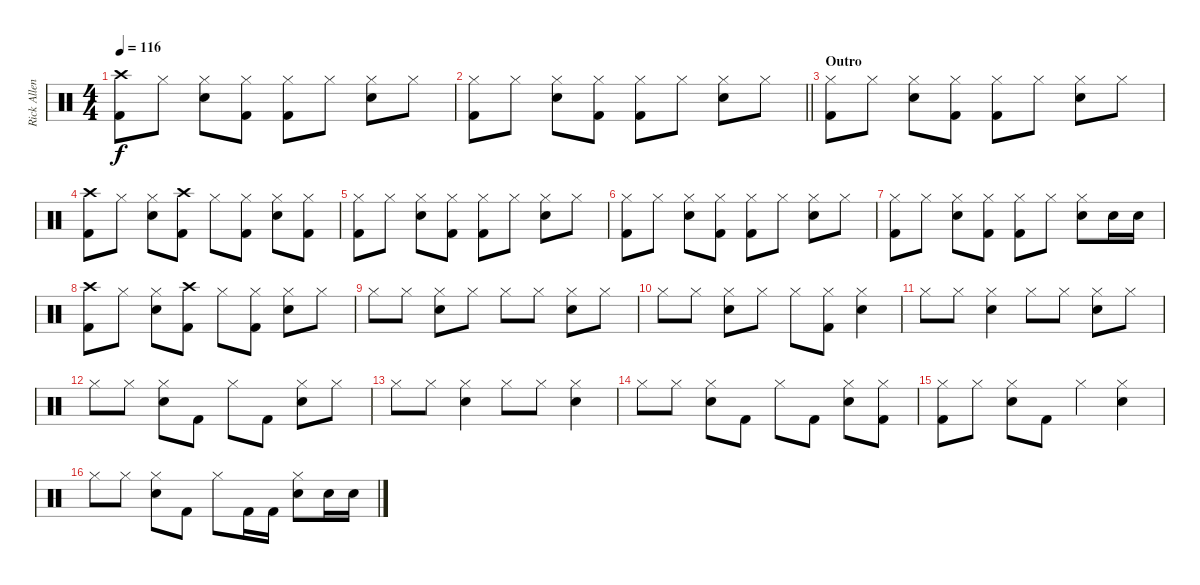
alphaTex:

\track ("Rick Allen" "Rick Allen") {instrument percussion}
\staff {score}
\articulation defaults
\ts (4 4)
\tempo 116
\clef neutral
\ks c
("Crash high (hit)" "Kick (hit) 2").8{dy f} "Hi-Hat (closed)".8 ("Hi-Hat (closed)" "Electric Snare (hit)").8 ("Hi-Hat (closed)" "Kick (hit) 2").8 ("Hi-Hat (closed)" "Kick (hit) 2").8 "Hi-Hat (closed)".8 ("Hi-Hat (closed)" "Electric Snare (hit)").8 "Hi-Hat (closed)".8 |
\barLineRight lightlight
("Hi-Hat (closed)" "Kick (hit) 2").8 "Hi-Hat (closed)".8 ("Hi-Hat (closed)" "Electric Snare (hit)").8 ("Hi-Hat (closed)" "Kick (hit) 2").8 ("Hi-Hat (closed)" "Kick (hit) 2").8 "Hi-Hat (closed)".8 ("Hi-Hat (closed)" "Electric Snare (hit)").8 "Hi-Hat (closed)".8 |
\section ("" "Outro")
("Hi-Hat (closed)" "Kick (hit) 2").8 "Hi-Hat (closed)".8 ("Hi-Hat (closed)" "Electric Snare (hit)").8 ("Hi-Hat (closed)" "Kick (hit) 2").8 ("Hi-Hat (closed)" "Kick (hit) 2").8 "Hi-Hat (closed)".8 ("Hi-Hat (closed)" "Electric Snare (hit)").8 "Hi-Hat (closed)".8 |
("Crash high (hit)" "Kick (hit) 2").8 "Hi-Hat (closed)".8 ("Hi-Hat (closed)" "Electric Snare (hit)").8 ("Crash high (hit)" "Kick (hit) 2").8 "Hi-Hat (closed)".8 ("Hi-Hat (closed)" "Kick (hit) 2").8 ("Hi-Hat (closed)" "Electric Snare (hit)").8 ("Hi-Hat (closed)" "Kick (hit) 2").8 |
("Hi-Hat (closed)" "Kick (hit) 2").8 "Hi-Hat (closed)".8 ("Hi-Hat (closed)" "Electric Snare (hit)").8 ("Hi-Hat (closed)" "Kick (hit) 2").8 ("Hi-Hat (closed)" "Kick (hit) 2").8 "Hi-Hat (closed)".8 ("Hi-Hat (closed)" "Electric Snare (hit)").8 "Hi-Hat (closed)".8 |
("Hi-Hat (closed)" "Kick (hit) 2").8 "Hi-Hat (closed)".8 ("Hi-Hat (closed)" "Electric Snare (hit)").8 ("Hi-Hat (closed)" "Kick (hit) 2").8 ("Hi-Hat (closed)" "Kick (hit) 2").8 "Hi-Hat (closed)".8 ("Hi-Hat (closed)" "Electric Snare (hit)").8 "Hi-Hat (closed)".8 |
("Hi-Hat (closed)" "Kick (hit) 2").8 "Hi-Hat (closed)".8 ("Hi-Hat (closed)" "Electric Snare (hit)").8 ("Hi-Hat (closed)" "Kick (hit) 2").8 ("Hi-Hat (closed)" "Kick (hit) 2").8 "Hi-Hat (closed)".8 ("Hi-Hat (closed)" "Electric Snare (hit)").8 "Electric Snare (hit)".16 "Electric Snare (hit)".16 |
("Crash high (hit)" "Kick (hit) 2").8 "Hi-Hat (closed)".8 ("Hi-Hat (closed)" "Electric Snare (hit)").8 ("Crash high (hit)" "Kick (hit) 2").8 "Hi-Hat (closed)".8 ("Hi-Hat (closed)" "Kick (hit) 2").8 ("Hi-Hat (closed)" "Electric Snare (hit)").8 "Hi-Hat (closed)".8 |
"Hi-Hat (closed)".8 "Hi-Hat (closed)".8 ("Hi-Hat (closed)" "Electric Snare (hit)").8 "Hi-Hat (closed)".8 "Hi-Hat (closed)".8 "Hi-Hat (closed)".8 ("Hi-Hat (closed)" "Electric Snare (hit)").8 "Hi-Hat (closed)".8 |
"Hi-Hat (closed)".8 "Hi-Hat (closed)".8 ("Hi-Hat (closed)" "Electric Snare (hit)").8 "Hi-Hat (closed)".8 "Hi-Hat (closed)".8 ("Hi-Hat (closed)" "Kick (hit) 2").8 ("Hi-Hat (closed)" "Electric Snare (hit)").4 |
"Hi-Hat (closed)".8 "Hi-Hat (closed)".8 ("Hi-Hat (closed)" "Electric Snare (hit)").4 "Hi-Hat (closed)".8 "Hi-Hat (closed)".8 ("Hi-Hat (closed)" "Electric Snare (hit)").8 "Hi-Hat (closed)".8 |
"Hi-Hat (closed)".8 "Hi-Hat (closed)".8 ("Hi-Hat (closed)" "Electric Snare (hit)").8 "Kick (hit) 2".8 "Hi-Hat (closed)".8 "Kick (hit) 2".8 ("Hi-Hat (closed)" "Electric Snare (hit)").8 "Hi-Hat (closed)".8 |
"Hi-Hat (closed)".8 "Hi-Hat (closed)".8 ("Hi-Hat (closed)" "Electric Snare (hit)").4 "Hi-Hat (closed)".8 "Hi-Hat (closed)".8 ("Hi-Hat (closed)" "Electric Snare (hit)").4 |
"Hi-Hat (closed)".8 "Hi-Hat (closed)".8 ("Hi-Hat (closed)" "Electric Snare (hit)").8 "Kick (hit) 2".8 "Hi-Hat (closed)".8 "Kick (hit) 2".8 ("Hi-Hat (closed)" "Electric Snare (hit)").8 ("Hi-Hat (closed)" "Kick (hit) 2").8 |
("Hi-Hat (closed)" "Kick (hit) 2").8 "Hi-Hat (closed)".8 ("Hi-Hat (closed)" "Electric Snare (hit)").8 "Kick (hit) 2".8 "Hi-Hat (closed)".4 ("Hi-Hat (closed)" "Electric Snare (hit)").4 |
"Hi-Hat (closed)".8 "Hi-Hat (closed)".8 ("Hi-Hat (closed)" "Electric Snare (hit)").8 "Kick (hit) 2".8 "Hi-Hat (closed)".8 "Kick (hit) 2".16 "Kick (hit) 2".16 ("Hi-Hat (closed)" "Electric Snare (hit)").8 "Electric Snare (hit)".16 "Electric Snare (hit)".16
